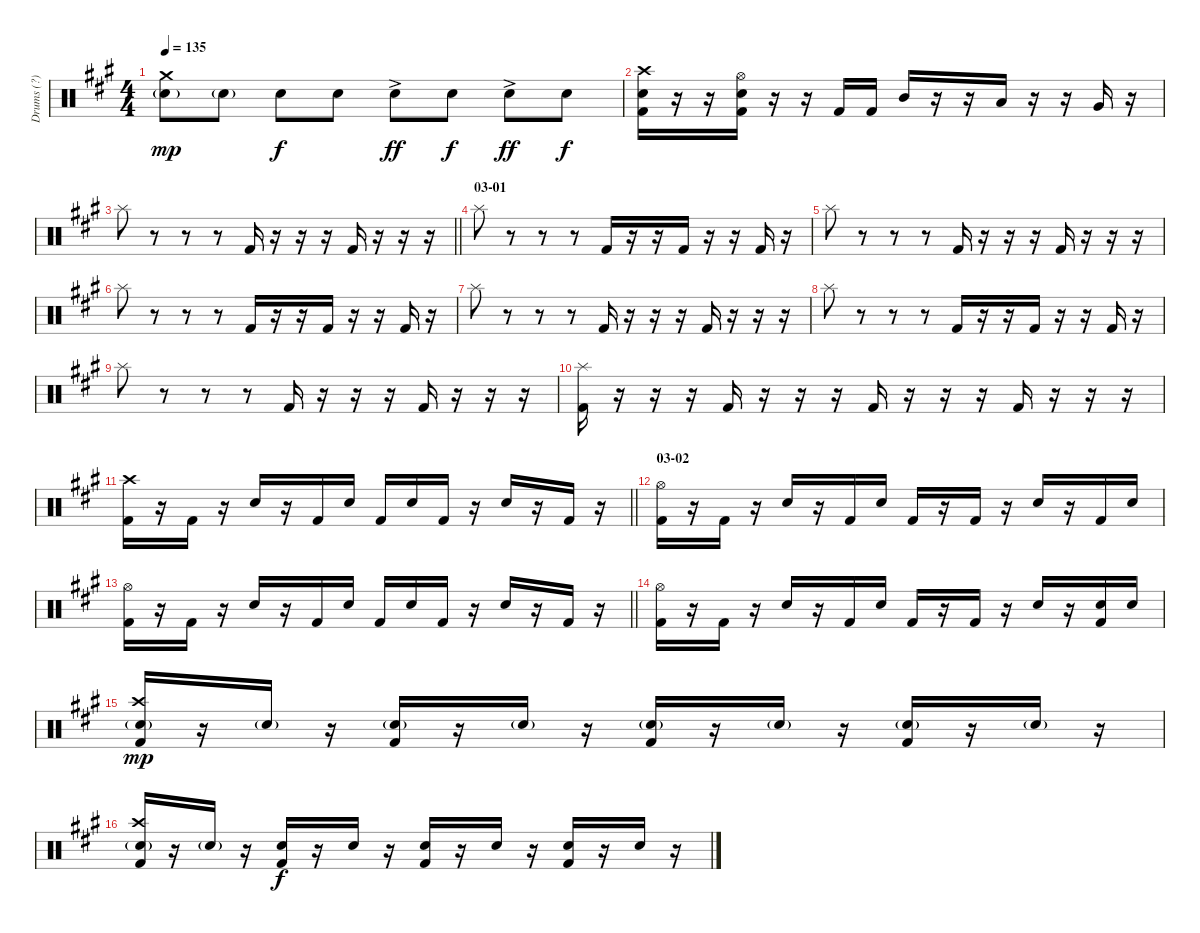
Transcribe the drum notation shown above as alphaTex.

\track ("Drums (?)" "Drums (?)") {instrument percussion}
\staff {score}
\articulation defaults
\ts (4 4)
\tempo 135
\clef neutral
\ks a
("Crash medium (hit)" "Electric Snare (hit)"{g}).8{dy mp} "Electric Snare (hit)"{g}.8 "Electric Snare (hit)".8{dy f} "Electric Snare (hit)".8 "Electric Snare (hit)"{ac}.8{dy ff} "Electric Snare (hit)".8{dy f} "Electric Snare (hit)"{ac}.8{dy ff} "Electric Snare (hit)".8{dy f} |
("Crash high (hit)" "Electric Snare (hit)" "Kick (hit) 2").16 r.16 r.16 ("Hi-Hat (open)" "Electric Snare (hit)" "Kick (hit) 2").16 r.16 r.16 "Kick (hit) 2".16 "Kick (hit) 2".16 "Mid Tom (hit)".16 r.16 r.16 "Low Tom (hit)".16 r.16 r.16 "Very Low Tom (hit)".16 r.16 |
\barLineRight lightlight "Splash (hit)".8
r.8 r.8 r.8 "Kick (hit) 2".16 r.16 r.16 r.16 "Kick (hit) 2".16 r.16 r.16 r.16 |
\section ("" "03-01")
"Splash (hit)".8 r.8 r.8 r.8 "Kick (hit) 2".16 r.16 r.16 "Kick (hit) 2".16 r.16 r.16 "Kick (hit) 2".16 r.16 |
"Splash (hit)".8 r.8 r.8 r.8 "Kick (hit) 2".16 r.16 r.16 r.16 "Kick (hit) 2".16 r.16 r.16 r.16 |
"Splash (hit)".8 r.8 r.8 r.8 "Kick (hit) 2".16 r.16 r.16 "Kick (hit) 2".16 r.16 r.16 "Kick (hit) 2".16 r.16 |
"Splash (hit)".8 r.8 r.8 r.8 "Kick (hit) 2".16 r.16 r.16 r.16 "Kick (hit) 2".16 r.16 r.16 r.16 |
"Splash (hit)".8 r.8 r.8 r.8 "Kick (hit) 2".16 r.16 r.16 "Kick (hit) 2".16 r.16 r.16 "Kick (hit) 2".16 r.16 |
"Splash (hit)".8 r.8 r.8 r.8 "Kick (hit) 2".16 r.16 r.16 r.16 "Kick (hit) 2".16 r.16 r.16 r.16 |
("Splash (hit)" "Kick (hit) 2").16 r.16 r.16 r.16 "Kick (hit) 2".16 r.16 r.16 r.16 "Kick (hit) 2".16 r.16 r.16 r.16 "Kick (hit) 2".16 r.16 r.16 r.16 |
\barLineRight lightlight
("Crash high (hit)" "Kick (hit) 2").16 r.16 "Kick (hit) 2".16 r.16 "Electric Snare (hit)".16 r.16 "Kick (hit) 2".16 "Electric Snare (hit)".16 "Kick (hit) 2".16 "Electric Snare (hit)".16 "Kick (hit) 2".16 r.16 "Electric Snare (hit)".16 r.16 "Kick (hit) 2".16 r.16 |
\section ("" "03-02")
("Hi-Hat (open)" "Kick (hit) 2").16 r.16 "Kick (hit) 2".16 r.16 "Electric Snare (hit)".16 r.16 "Kick (hit) 2".16 "Electric Snare (hit)".16 "Kick (hit) 2".16 r.16 "Kick (hit) 2".16 r.16 "Electric Snare (hit)".16 r.16 "Kick (hit) 2".16 "Electric Snare (hit)".16 |
\barLineRight lightlight
("Hi-Hat (open)" "Kick (hit) 2").16 r.16 "Kick (hit) 2".16 r.16 "Electric Snare (hit)".16 r.16 "Kick (hit) 2".16 "Electric Snare (hit)".16 "Kick (hit) 2".16 "Electric Snare (hit)".16 "Kick (hit) 2".16 r.16 "Electric Snare (hit)".16 r.16 "Kick (hit) 2".16 r.16 |
("Hi-Hat (open)" "Kick (hit) 2").16 r.16 "Kick (hit) 2".16 r.16 "Electric Snare (hit)".16 r.16 "Kick (hit) 2".16 "Electric Snare (hit)".16 "Kick (hit) 2".16 r.16 "Kick (hit) 2".16 r.16 "Electric Snare (hit)".16 r.16 ("Electric Snare (hit)" "Kick (hit) 2").16 "Electric Snare (hit)".16 |
("Crash high (hit)" "Electric Snare (hit)"{g} "Kick (hit) 2").16{dy mp} r.16 "Electric Snare (hit)"{g}.16 r.16 ("Electric Snare (hit)"{g} "Kick (hit) 2").16 r.16 "Electric Snare (hit)"{g}.16 r.16 ("Electric Snare (hit)"{g} "Kick (hit) 2").16 r.16 "Electric Snare (hit)"{g}.16 r.16 ("Electric Snare (hit)"{g} "Kick (hit) 2").16 r.16 "Electric Snare (hit)"{g}.16 r.16 |
("Crash high (hit)" "Electric Snare (hit)"{g} "Kick (hit) 2").16 r.16 "Electric Snare (hit)"{g}.16 r.16 ("Electric Snare (hit)" "Kick (hit) 2").16{dy f} r.16 "Electric Snare (hit)".16 r.16 ("Electric Snare (hit)" "Kick (hit) 2").16 r.16 "Electric Snare (hit)".16 r.16 ("Electric Snare (hit)" "Kick (hit) 2").16 r.16 "Electric Snare (hit)".16 r.16
